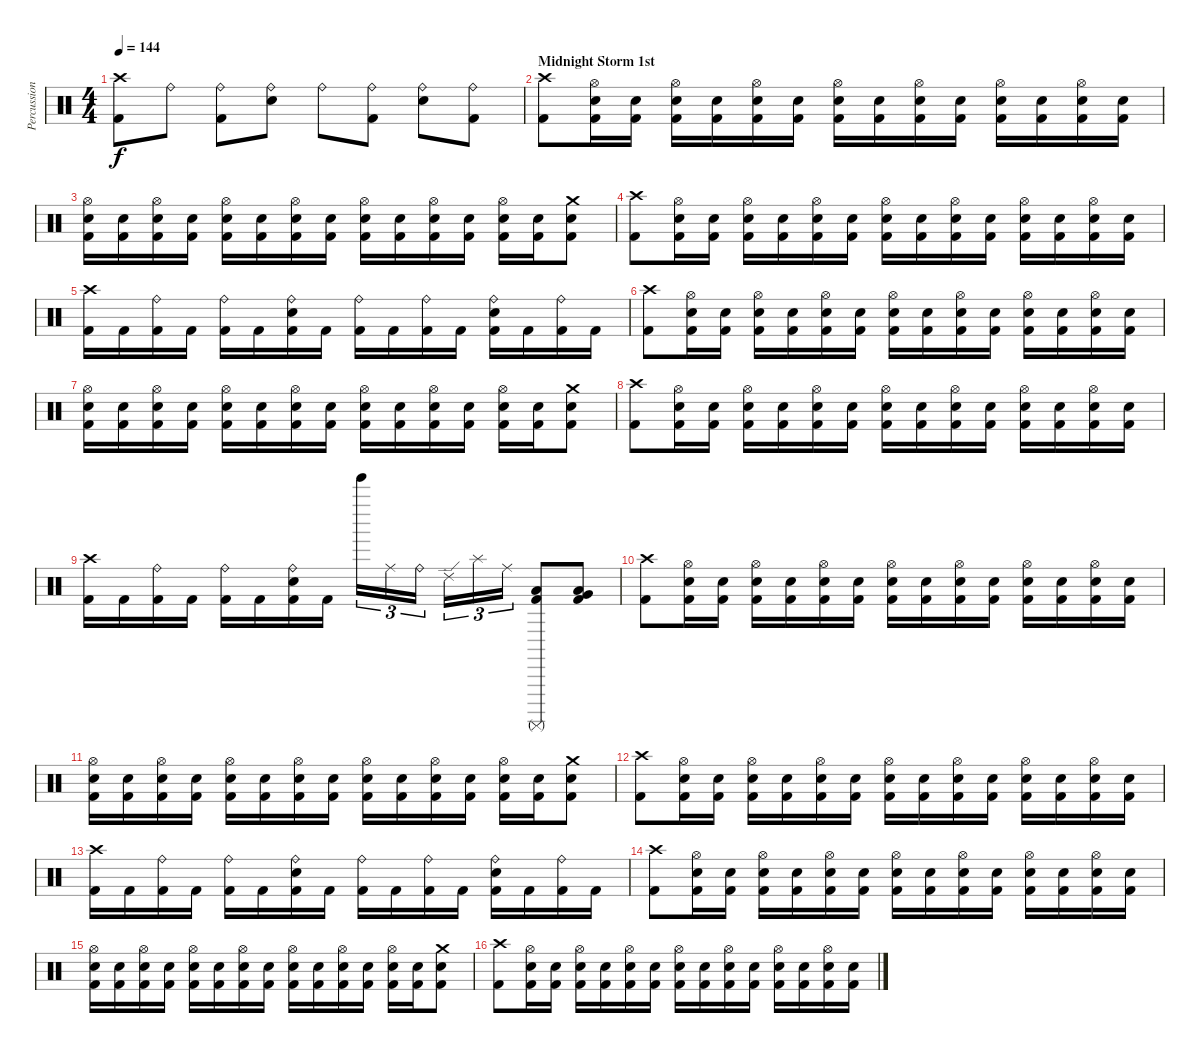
\track ("Percussion" "Percussion") {instrument percussion}
\staff {score}
\articulation defaults
\ts (4 4)
\tempo 144
\clef neutral
\ks c
("Crash high (hit)" "Kick (hit) 2").8{dy f} "Ride (bell)".8 ("Ride (bell)" "Kick (hit) 2").8 ("Ride (bell)" "Electric Snare (hit)").8 "Ride (bell)".8 ("Ride (bell)" "Kick (hit) 2").8 ("Ride (bell)" "Electric Snare (hit)").8 ("Ride (bell)" "Kick (hit) 2").8 |
\section ("" "Midnight Storm 1st")
("Crash high (hit)" "Kick (hit) 2").8 ("Hi-Hat (open)" "Electric Snare (hit)" "Kick (hit) 2").16 ("Electric Snare (hit)" "Kick (hit) 2").16 ("Hi-Hat (open)" "Electric Snare (hit)" "Kick (hit) 2").16 ("Electric Snare (hit)" "Kick (hit) 2").16 ("Hi-Hat (open)" "Electric Snare (hit)" "Kick (hit) 2").16 ("Electric Snare (hit)" "Kick (hit) 2").16 ("Hi-Hat (open)" "Electric Snare (hit)" "Kick (hit) 2").16 ("Electric Snare (hit)" "Kick (hit) 2").16 ("Hi-Hat (open)" "Electric Snare (hit)" "Kick (hit) 2").16 ("Electric Snare (hit)" "Kick (hit) 2").16 ("Hi-Hat (open)" "Electric Snare (hit)" "Kick (hit) 2").16 ("Electric Snare (hit)" "Kick (hit) 2").16 ("Hi-Hat (open)" "Electric Snare (hit)" "Kick (hit) 2").16 ("Electric Snare (hit)" "Kick (hit) 2").16 |
("Hi-Hat (open)" "Electric Snare (hit)" "Kick (hit) 2").16 ("Electric Snare (hit)" "Kick (hit) 2").16 ("Hi-Hat (open)" "Electric Snare (hit)" "Kick (hit) 2").16 ("Electric Snare (hit)" "Kick (hit) 2").16 ("Hi-Hat (open)" "Electric Snare (hit)" "Kick (hit) 2").16 ("Electric Snare (hit)" "Kick (hit) 2").16 ("Hi-Hat (open)" "Electric Snare (hit)" "Kick (hit) 2").16 ("Electric Snare (hit)" "Kick (hit) 2").16 ("Hi-Hat (open)" "Electric Snare (hit)" "Kick (hit) 2").16 ("Electric Snare (hit)" "Kick (hit) 2").16 ("Hi-Hat (open)" "Electric Snare (hit)" "Kick (hit) 2").16 ("Electric Snare (hit)" "Kick (hit) 2").16 ("Hi-Hat (open)" "Electric Snare (hit)" "Kick (hit) 2").16 ("Electric Snare (hit)" "Kick (hit) 2").16 ("Crash medium (hit)" "Electric Snare (hit)" "Kick (hit) 2").8 |
("Crash high (hit)" "Kick (hit) 2").8 ("Hi-Hat (open)" "Electric Snare (hit)" "Kick (hit) 2").16 ("Electric Snare (hit)" "Kick (hit) 2").16 ("Hi-Hat (open)" "Electric Snare (hit)" "Kick (hit) 2").16 ("Electric Snare (hit)" "Kick (hit) 2").16 ("Hi-Hat (open)" "Electric Snare (hit)" "Kick (hit) 2").16 ("Electric Snare (hit)" "Kick (hit) 2").16 ("Hi-Hat (open)" "Electric Snare (hit)" "Kick (hit) 2").16 ("Electric Snare (hit)" "Kick (hit) 2").16 ("Hi-Hat (open)" "Electric Snare (hit)" "Kick (hit) 2").16 ("Electric Snare (hit)" "Kick (hit) 2").16 ("Hi-Hat (open)" "Electric Snare (hit)" "Kick (hit) 2").16 ("Electric Snare (hit)" "Kick (hit) 2").16 ("Hi-Hat (open)" "Electric Snare (hit)" "Kick (hit) 2").16 ("Electric Snare (hit)" "Kick (hit) 2").16 |
("Crash high (hit)" "Kick (hit) 2").16 "Kick (hit) 2".16 ("Ride (bell)" "Kick (hit) 2").16 "Kick (hit) 2".16 ("Ride (bell)" "Kick (hit) 2").16 "Kick (hit) 2".16 ("Ride (bell)" "Electric Snare (hit)" "Kick (hit) 2").16 "Kick (hit) 2".16 ("Ride (bell)" "Kick (hit) 2").16 "Kick (hit) 2".16 ("Ride (bell)" "Kick (hit) 2").16 "Kick (hit) 2".16 ("Ride (bell)" "Electric Snare (hit)" "Kick (hit) 2").16 "Kick (hit) 2".16 ("Ride (bell)" "Kick (hit) 2").16 "Kick (hit) 2".16 |
("Crash high (hit)" "Kick (hit) 2").8 ("Hi-Hat (open)" "Electric Snare (hit)" "Kick (hit) 2").16 ("Electric Snare (hit)" "Kick (hit) 2").16 ("Hi-Hat (open)" "Electric Snare (hit)" "Kick (hit) 2").16 ("Electric Snare (hit)" "Kick (hit) 2").16 ("Hi-Hat (open)" "Electric Snare (hit)" "Kick (hit) 2").16 ("Electric Snare (hit)" "Kick (hit) 2").16 ("Hi-Hat (open)" "Electric Snare (hit)" "Kick (hit) 2").16 ("Electric Snare (hit)" "Kick (hit) 2").16 ("Hi-Hat (open)" "Electric Snare (hit)" "Kick (hit) 2").16 ("Electric Snare (hit)" "Kick (hit) 2").16 ("Hi-Hat (open)" "Electric Snare (hit)" "Kick (hit) 2").16 ("Electric Snare (hit)" "Kick (hit) 2").16 ("Hi-Hat (open)" "Electric Snare (hit)" "Kick (hit) 2").16 ("Electric Snare (hit)" "Kick (hit) 2").16 |
("Hi-Hat (open)" "Electric Snare (hit)" "Kick (hit) 2").16 ("Electric Snare (hit)" "Kick (hit) 2").16 ("Hi-Hat (open)" "Electric Snare (hit)" "Kick (hit) 2").16 ("Electric Snare (hit)" "Kick (hit) 2").16 ("Hi-Hat (open)" "Electric Snare (hit)" "Kick (hit) 2").16 ("Electric Snare (hit)" "Kick (hit) 2").16 ("Hi-Hat (open)" "Electric Snare (hit)" "Kick (hit) 2").16 ("Electric Snare (hit)" "Kick (hit) 2").16 ("Hi-Hat (open)" "Electric Snare (hit)" "Kick (hit) 2").16 ("Electric Snare (hit)" "Kick (hit) 2").16 ("Hi-Hat (open)" "Electric Snare (hit)" "Kick (hit) 2").16 ("Electric Snare (hit)" "Kick (hit) 2").16 ("Hi-Hat (open)" "Electric Snare (hit)" "Kick (hit) 2").16 ("Electric Snare (hit)" "Kick (hit) 2").16 ("Crash medium (hit)" "Electric Snare (hit)" "Kick (hit) 2").8 |
("Crash high (hit)" "Kick (hit) 2").8 ("Hi-Hat (open)" "Electric Snare (hit)" "Kick (hit) 2").16 ("Electric Snare (hit)" "Kick (hit) 2").16 ("Hi-Hat (open)" "Electric Snare (hit)" "Kick (hit) 2").16 ("Electric Snare (hit)" "Kick (hit) 2").16 ("Hi-Hat (open)" "Electric Snare (hit)" "Kick (hit) 2").16 ("Electric Snare (hit)" "Kick (hit) 2").16 ("Hi-Hat (open)" "Electric Snare (hit)" "Kick (hit) 2").16 ("Electric Snare (hit)" "Kick (hit) 2").16 ("Hi-Hat (open)" "Electric Snare (hit)" "Kick (hit) 2").16 ("Electric Snare (hit)" "Kick (hit) 2").16 ("Hi-Hat (open)" "Electric Snare (hit)" "Kick (hit) 2").16 ("Electric Snare (hit)" "Kick (hit) 2").16 ("Hi-Hat (open)" "Electric Snare (hit)" "Kick (hit) 2").16 ("Electric Snare (hit)" "Kick (hit) 2").16 |
("Crash high (hit)" "Kick (hit) 2").16 "Kick (hit) 2".16 ("Ride (bell)" "Kick (hit) 2").16 "Kick (hit) 2".16 ("Ride (bell)" "Kick (hit) 2").16 "Kick (hit) 2".16 ("Ride (bell)" "Electric Snare (hit)" "Kick (hit) 2").16 "Kick (hit) 2".16 "Tinkle Bell (hit)".16{tu (3 2)} "Ride (middle)".16{tu (3 2)} "Ride (bell)".16{tu (3 2)} "Ride (edge) 2".16{tu (3 2)} "Splash (hit)".16{tu (3 2)} "Ride (middle)".16{tu (3 2)} ("Low Tom (hit)" "Surdo (mute)" "Kick (hit) 2").8 ("Very Low Tom (hit)" "Low Tom (hit)" "Kick (hit) 2").8 |
("Crash high (hit)" "Kick (hit) 2").8 ("Hi-Hat (open)" "Electric Snare (hit)" "Kick (hit) 2").16 ("Electric Snare (hit)" "Kick (hit) 2").16 ("Hi-Hat (open)" "Electric Snare (hit)" "Kick (hit) 2").16 ("Electric Snare (hit)" "Kick (hit) 2").16 ("Hi-Hat (open)" "Electric Snare (hit)" "Kick (hit) 2").16 ("Electric Snare (hit)" "Kick (hit) 2").16 ("Hi-Hat (open)" "Electric Snare (hit)" "Kick (hit) 2").16 ("Electric Snare (hit)" "Kick (hit) 2").16 ("Hi-Hat (open)" "Electric Snare (hit)" "Kick (hit) 2").16 ("Electric Snare (hit)" "Kick (hit) 2").16 ("Hi-Hat (open)" "Electric Snare (hit)" "Kick (hit) 2").16 ("Electric Snare (hit)" "Kick (hit) 2").16 ("Hi-Hat (open)" "Electric Snare (hit)" "Kick (hit) 2").16 ("Electric Snare (hit)" "Kick (hit) 2").16 |
("Hi-Hat (open)" "Electric Snare (hit)" "Kick (hit) 2").16 ("Electric Snare (hit)" "Kick (hit) 2").16 ("Hi-Hat (open)" "Electric Snare (hit)" "Kick (hit) 2").16 ("Electric Snare (hit)" "Kick (hit) 2").16 ("Hi-Hat (open)" "Electric Snare (hit)" "Kick (hit) 2").16 ("Electric Snare (hit)" "Kick (hit) 2").16 ("Hi-Hat (open)" "Electric Snare (hit)" "Kick (hit) 2").16 ("Electric Snare (hit)" "Kick (hit) 2").16 ("Hi-Hat (open)" "Electric Snare (hit)" "Kick (hit) 2").16 ("Electric Snare (hit)" "Kick (hit) 2").16 ("Hi-Hat (open)" "Electric Snare (hit)" "Kick (hit) 2").16 ("Electric Snare (hit)" "Kick (hit) 2").16 ("Hi-Hat (open)" "Electric Snare (hit)" "Kick (hit) 2").16 ("Electric Snare (hit)" "Kick (hit) 2").16 ("Crash medium (hit)" "Electric Snare (hit)" "Kick (hit) 2").8 |
("Crash high (hit)" "Kick (hit) 2").8 ("Hi-Hat (open)" "Electric Snare (hit)" "Kick (hit) 2").16 ("Electric Snare (hit)" "Kick (hit) 2").16 ("Hi-Hat (open)" "Electric Snare (hit)" "Kick (hit) 2").16 ("Electric Snare (hit)" "Kick (hit) 2").16 ("Hi-Hat (open)" "Electric Snare (hit)" "Kick (hit) 2").16 ("Electric Snare (hit)" "Kick (hit) 2").16 ("Hi-Hat (open)" "Electric Snare (hit)" "Kick (hit) 2").16 ("Electric Snare (hit)" "Kick (hit) 2").16 ("Hi-Hat (open)" "Electric Snare (hit)" "Kick (hit) 2").16 ("Electric Snare (hit)" "Kick (hit) 2").16 ("Hi-Hat (open)" "Electric Snare (hit)" "Kick (hit) 2").16 ("Electric Snare (hit)" "Kick (hit) 2").16 ("Hi-Hat (open)" "Electric Snare (hit)" "Kick (hit) 2").16 ("Electric Snare (hit)" "Kick (hit) 2").16 |
("Crash high (hit)" "Kick (hit) 2").16 "Kick (hit) 2".16 ("Ride (bell)" "Kick (hit) 2").16 "Kick (hit) 2".16 ("Ride (bell)" "Kick (hit) 2").16 "Kick (hit) 2".16 ("Ride (bell)" "Electric Snare (hit)" "Kick (hit) 2").16 "Kick (hit) 2".16 ("Ride (bell)" "Kick (hit) 2").16 "Kick (hit) 2".16 ("Ride (bell)" "Kick (hit) 2").16 "Kick (hit) 2".16 ("Ride (bell)" "Electric Snare (hit)" "Kick (hit) 2").16 "Kick (hit) 2".16 ("Ride (bell)" "Kick (hit) 2").16 "Kick (hit) 2".16 |
("Crash high (hit)" "Kick (hit) 2").8 ("Hi-Hat (open)" "Electric Snare (hit)" "Kick (hit) 2").16 ("Electric Snare (hit)" "Kick (hit) 2").16 ("Hi-Hat (open)" "Electric Snare (hit)" "Kick (hit) 2").16 ("Electric Snare (hit)" "Kick (hit) 2").16 ("Hi-Hat (open)" "Electric Snare (hit)" "Kick (hit) 2").16 ("Electric Snare (hit)" "Kick (hit) 2").16 ("Hi-Hat (open)" "Electric Snare (hit)" "Kick (hit) 2").16 ("Electric Snare (hit)" "Kick (hit) 2").16 ("Hi-Hat (open)" "Electric Snare (hit)" "Kick (hit) 2").16 ("Electric Snare (hit)" "Kick (hit) 2").16 ("Hi-Hat (open)" "Electric Snare (hit)" "Kick (hit) 2").16 ("Electric Snare (hit)" "Kick (hit) 2").16 ("Hi-Hat (open)" "Electric Snare (hit)" "Kick (hit) 2").16 ("Electric Snare (hit)" "Kick (hit) 2").16 |
("Hi-Hat (open)" "Electric Snare (hit)" "Kick (hit) 2").16 ("Electric Snare (hit)" "Kick (hit) 2").16 ("Hi-Hat (open)" "Electric Snare (hit)" "Kick (hit) 2").16 ("Electric Snare (hit)" "Kick (hit) 2").16 ("Hi-Hat (open)" "Electric Snare (hit)" "Kick (hit) 2").16 ("Electric Snare (hit)" "Kick (hit) 2").16 ("Hi-Hat (open)" "Electric Snare (hit)" "Kick (hit) 2").16 ("Electric Snare (hit)" "Kick (hit) 2").16 ("Hi-Hat (open)" "Electric Snare (hit)" "Kick (hit) 2").16 ("Electric Snare (hit)" "Kick (hit) 2").16 ("Hi-Hat (open)" "Electric Snare (hit)" "Kick (hit) 2").16 ("Electric Snare (hit)" "Kick (hit) 2").16 ("Hi-Hat (open)" "Electric Snare (hit)" "Kick (hit) 2").16 ("Electric Snare (hit)" "Kick (hit) 2").16 ("Crash medium (hit)" "Electric Snare (hit)" "Kick (hit) 2").8 |
("Crash high (hit)" "Kick (hit) 2").8 ("Hi-Hat (open)" "Electric Snare (hit)" "Kick (hit) 2").16 ("Electric Snare (hit)" "Kick (hit) 2").16 ("Hi-Hat (open)" "Electric Snare (hit)" "Kick (hit) 2").16 ("Electric Snare (hit)" "Kick (hit) 2").16 ("Hi-Hat (open)" "Electric Snare (hit)" "Kick (hit) 2").16 ("Electric Snare (hit)" "Kick (hit) 2").16 ("Hi-Hat (open)" "Electric Snare (hit)" "Kick (hit) 2").16 ("Electric Snare (hit)" "Kick (hit) 2").16 ("Hi-Hat (open)" "Electric Snare (hit)" "Kick (hit) 2").16 ("Electric Snare (hit)" "Kick (hit) 2").16 ("Hi-Hat (open)" "Electric Snare (hit)" "Kick (hit) 2").16 ("Electric Snare (hit)" "Kick (hit) 2").16 ("Hi-Hat (open)" "Electric Snare (hit)" "Kick (hit) 2").16 ("Electric Snare (hit)" "Kick (hit) 2").16
